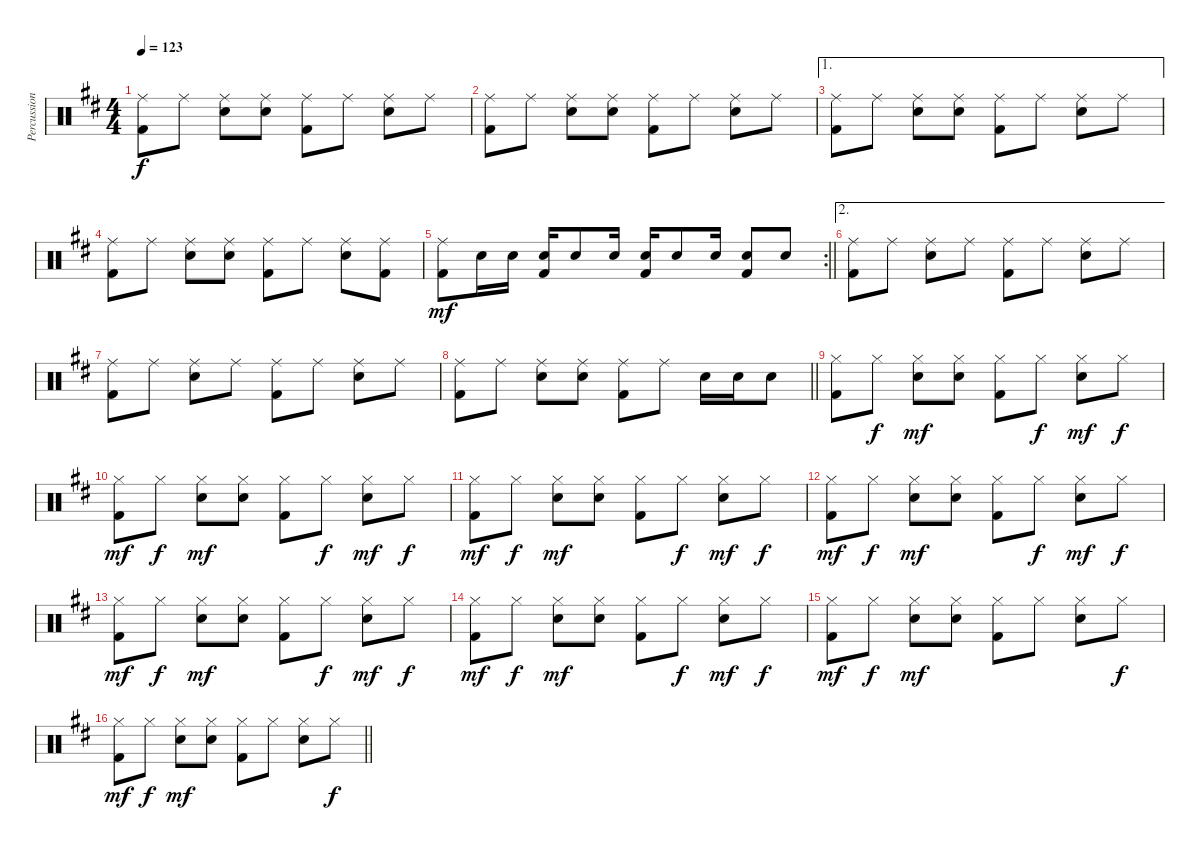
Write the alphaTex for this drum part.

\track ("Percussion" "Percussion") {instrument percussion}
\staff {score}
\articulation defaults
\ts (4 4)
\tempo 123
\clef neutral
\ks d
("Ride (middle)" "Kick (hit) 2").8{dy f} "Ride (middle)".8 ("Ride (middle)" "Snare (hit) 2").8 ("Ride (middle)" "Snare (hit) 2").8 ("Ride (middle)" "Kick (hit) 2").8 "Ride (middle)".8 ("Ride (middle)" "Snare (hit) 2").8 "Ride (middle)".8 |
("Ride (middle)" "Kick (hit) 2").8 "Ride (middle)".8 ("Ride (middle)" "Snare (hit) 2").8 ("Ride (middle)" "Snare (hit) 2").8 ("Ride (middle)" "Kick (hit) 2").8 "Ride (middle)".8 ("Ride (middle)" "Snare (hit) 2").8 "Ride (middle)".8 |
\ae 1
("Ride (middle)" "Kick (hit) 2").8 "Ride (middle)".8 ("Ride (middle)" "Snare (hit) 2").8 ("Ride (middle)" "Snare (hit) 2").8 ("Ride (middle)" "Kick (hit) 2").8 "Ride (middle)".8 ("Ride (middle)" "Snare (hit) 2").8 "Ride (middle)".8 |
("Ride (middle)" "Kick (hit) 2").8 "Ride (middle)".8 ("Ride (middle)" "Snare (hit) 2").8 ("Ride (middle)" "Snare (hit) 2").8 ("Ride (middle)" "Kick (hit) 2").8 "Ride (middle)".8 ("Ride (middle)" "Snare (hit) 2").8 ("Ride (middle)" "Kick (hit) 2").8 |
\rc 2
\barLineRight lightlight
("Ride (middle)" "Kick (hit) 2").8{dy mf} "Snare (hit) 2".16 "Snare (hit) 2".16 ("Snare (hit) 2" "Kick (hit) 2").16 "Snare (hit) 2".8 "Snare (hit) 2".16 ("Snare (hit) 2" "Kick (hit) 2").16 "Snare (hit) 2".8 "Snare (hit) 2".16 ("Snare (hit) 2" "Kick (hit) 2").8 "Snare (hit) 2".8 |
\ae 2
("Ride (middle)" "Kick (hit) 2").8 "Ride (middle)".8 ("Ride (middle)" "Snare (hit) 2").8 "Ride (middle)".8 ("Ride (middle)" "Kick (hit) 2").8 "Ride (middle)".8 ("Ride (middle)" "Snare (hit) 2").8 "Ride (middle)".8 |
("Ride (middle)" "Kick (hit) 2").8 "Ride (middle)".8 ("Ride (middle)" "Snare (hit) 2").8 "Ride (middle)".8 ("Ride (middle)" "Kick (hit) 2").8 "Ride (middle)".8 ("Ride (middle)" "Snare (hit) 2").8 "Ride (middle)".8 |
\barLineRight lightlight
("Ride (middle)" "Kick (hit) 2").8 "Ride (middle)".8 ("Ride (middle)" "Snare (hit) 2").8 ("Ride (middle)" "Snare (hit) 2").8 ("Ride (middle)" "Kick (hit) 2").8 "Ride (middle)".8 "Snare (hit) 2".16 "Snare (hit) 2".16 "Snare (hit) 2".8 |
("Hi-Hat (closed)" "Kick (hit) 2").8 "Hi-Hat (closed)".8{dy f} ("Hi-Hat (closed)" "Snare (hit) 2").8{dy mf} ("Hi-Hat (closed)" "Snare (hit) 2").8 ("Hi-Hat (closed)" "Kick (hit) 2").8 "Hi-Hat (closed)".8{dy f} ("Hi-Hat (closed)" "Snare (hit) 2").8{dy mf} "Hi-Hat (closed)".8{dy f} |
("Hi-Hat (closed)" "Kick (hit) 2").8{dy mf} "Hi-Hat (closed)".8{dy f} ("Hi-Hat (closed)" "Snare (hit) 2").8{dy mf} ("Hi-Hat (closed)" "Snare (hit) 2").8 ("Hi-Hat (closed)" "Kick (hit) 2").8 "Hi-Hat (closed)".8{dy f} ("Hi-Hat (closed)" "Snare (hit) 2").8{dy mf} "Hi-Hat (closed)".8{dy f} |
("Hi-Hat (closed)" "Kick (hit) 2").8{dy mf} "Hi-Hat (closed)".8{dy f} ("Hi-Hat (closed)" "Snare (hit) 2").8{dy mf} ("Hi-Hat (closed)" "Snare (hit) 2").8 ("Hi-Hat (closed)" "Kick (hit) 2").8 "Hi-Hat (closed)".8{dy f} ("Hi-Hat (closed)" "Snare (hit) 2").8{dy mf} "Hi-Hat (closed)".8{dy f} |
("Hi-Hat (closed)" "Kick (hit) 2").8{dy mf} "Hi-Hat (closed)".8{dy f} ("Hi-Hat (closed)" "Snare (hit) 2").8{dy mf} ("Hi-Hat (closed)" "Snare (hit) 2").8 ("Hi-Hat (closed)" "Kick (hit) 2").8 "Hi-Hat (closed)".8{dy f} ("Hi-Hat (closed)" "Snare (hit) 2").8{dy mf} "Hi-Hat (closed)".8{dy f} |
("Hi-Hat (closed)" "Kick (hit) 2").8{dy mf} "Hi-Hat (closed)".8{dy f} ("Hi-Hat (closed)" "Snare (hit) 2").8{dy mf} ("Hi-Hat (closed)" "Snare (hit) 2").8 ("Hi-Hat (closed)" "Kick (hit) 2").8 "Hi-Hat (closed)".8{dy f} ("Hi-Hat (closed)" "Snare (hit) 2").8{dy mf} "Hi-Hat (closed)".8{dy f} |
("Hi-Hat (closed)" "Kick (hit) 2").8{dy mf} "Hi-Hat (closed)".8{dy f} ("Hi-Hat (closed)" "Snare (hit) 2").8{dy mf} ("Hi-Hat (closed)" "Snare (hit) 2").8 ("Hi-Hat (closed)" "Kick (hit) 2").8 "Hi-Hat (closed)".8{dy f} ("Hi-Hat (closed)" "Snare (hit) 2").8{dy mf} "Hi-Hat (closed)".8{dy f} |
("Hi-Hat (closed)" "Kick (hit) 2").8{dy mf} "Hi-Hat (closed)".8{dy f} ("Hi-Hat (closed)" "Snare (hit) 2").8{dy mf} ("Hi-Hat (closed)" "Snare (hit) 2").8 ("Hi-Hat (closed)" "Kick (hit) 2").8 "Hi-Hat (closed)".8 ("Hi-Hat (closed)" "Snare (hit) 2").8 "Hi-Hat (closed)".8{dy f} |
\barLineRight lightlight
("Hi-Hat (closed)" "Kick (hit) 2").8{dy mf} "Hi-Hat (closed)".8{dy f} ("Hi-Hat (closed)" "Snare (hit) 2").8{dy mf} ("Hi-Hat (closed)" "Snare (hit) 2").8 ("Hi-Hat (closed)" "Kick (hit) 2").8 "Hi-Hat (closed)".8 ("Hi-Hat (closed)" "Snare (hit) 2").8 "Hi-Hat (closed)".8{dy f}
